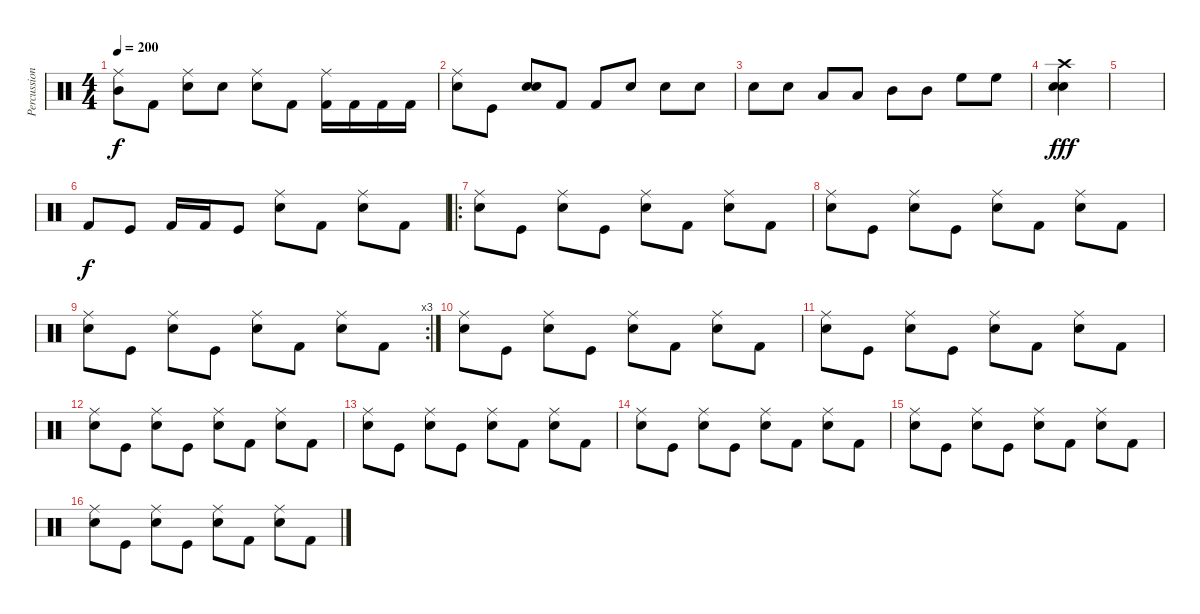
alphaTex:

\track ("Percussion" "Percussion") {instrument percussion}
\staff {score}
\articulation defaults
\ts (4 4)
\tempo 200
\clef neutral
\ks c
("Ride (middle)" "Mid Tom (hit)").8{dy f} "Kick (hit) 2".8 ("Ride (middle)" "Electric Snare (hit)").8 "Electric Snare (hit)".8 ("Ride (middle)" "Electric Snare (hit)").8 "Kick (hit) 2".8 ("Ride (middle)" "Kick (hit) 2").16 "Kick (hit) 2".16 "Kick (hit) 2".16 "Kick (hit) 2".16 |
("Ride (middle)" "Electric Snare (hit)").8 "Kick (hit)".8 ("Electric Snare (hit)" "Electric Snare (hit)").8{bu 120} "Kick (hit) 2".8 "Kick (hit) 2".8 "Electric Snare (hit)".8 "Electric Snare (hit)".8 "Electric Snare (hit)".8 |
"Electric Snare (hit)".8 "Electric Snare (hit)".8 "Low Tom (hit)".8 "Low Tom (hit)".8 "Mid Tom (hit)".8 "Mid Tom (hit)".8 "High Floor Tom (hit)".8 "High Floor Tom (hit)".8 |
("Electric Snare (hit)" "Electric Snare (hit)" "Crash high (hit)").4{bu 480 dy fff} |
|
"Kick (hit) 2".8{dy f} "Kick (hit)".8 "Kick (hit) 2".16 "Kick (hit) 2".16 "Kick (hit)".8 ("Ride (middle)" "Electric Snare (hit)").8 "Kick (hit) 2".8 ("Ride (middle)" "Electric Snare (hit)").8 "Kick (hit) 2".8 |
\ro
("Ride (middle)" "Electric Snare (hit)").8 "Kick (hit)".8 ("Ride (middle)" "Electric Snare (hit)").8 "Kick (hit)".8 ("Ride (middle)" "Electric Snare (hit)").8 "Kick (hit) 2".8 ("Ride (middle)" "Electric Snare (hit)").8 "Kick (hit) 2".8 |
("Ride (middle)" "Electric Snare (hit)").8 "Kick (hit)".8 ("Ride (middle)" "Electric Snare (hit)").8 "Kick (hit)".8 ("Ride (middle)" "Electric Snare (hit)").8 "Kick (hit) 2".8 ("Ride (middle)" "Electric Snare (hit)").8 "Kick (hit) 2".8 |
\rc 3
("Ride (middle)" "Electric Snare (hit)").8 "Kick (hit)".8 ("Ride (middle)" "Electric Snare (hit)").8 "Kick (hit)".8 ("Ride (middle)" "Electric Snare (hit)").8 "Kick (hit) 2".8 ("Ride (middle)" "Electric Snare (hit)").8 "Kick (hit) 2".8 |
("Ride (middle)" "Electric Snare (hit)").8 "Kick (hit)".8 ("Ride (middle)" "Electric Snare (hit)").8 "Kick (hit)".8 ("Ride (middle)" "Electric Snare (hit)").8 "Kick (hit) 2".8 ("Ride (middle)" "Electric Snare (hit)").8 "Kick (hit) 2".8 |
("Ride (middle)" "Electric Snare (hit)").8 "Kick (hit)".8 ("Ride (middle)" "Electric Snare (hit)").8 "Kick (hit)".8 ("Ride (middle)" "Electric Snare (hit)").8 "Kick (hit) 2".8 ("Ride (middle)" "Electric Snare (hit)").8 "Kick (hit) 2".8 |
("Ride (middle)" "Electric Snare (hit)").8 "Kick (hit)".8 ("Ride (middle)" "Electric Snare (hit)").8 "Kick (hit)".8 ("Ride (middle)" "Electric Snare (hit)").8 "Kick (hit) 2".8 ("Ride (middle)" "Electric Snare (hit)").8 "Kick (hit) 2".8 |
("Ride (middle)" "Electric Snare (hit)").8 "Kick (hit)".8 ("Ride (middle)" "Electric Snare (hit)").8 "Kick (hit)".8 ("Ride (middle)" "Electric Snare (hit)").8 "Kick (hit) 2".8 ("Ride (middle)" "Electric Snare (hit)").8 "Kick (hit) 2".8 |
("Ride (middle)" "Electric Snare (hit)").8 "Kick (hit)".8 ("Ride (middle)" "Electric Snare (hit)").8 "Kick (hit)".8 ("Ride (middle)" "Electric Snare (hit)").8 "Kick (hit) 2".8 ("Ride (middle)" "Electric Snare (hit)").8 "Kick (hit) 2".8 |
("Ride (middle)" "Electric Snare (hit)").8 "Kick (hit)".8 ("Ride (middle)" "Electric Snare (hit)").8 "Kick (hit)".8 ("Ride (middle)" "Electric Snare (hit)").8 "Kick (hit) 2".8 ("Ride (middle)" "Electric Snare (hit)").8 "Kick (hit) 2".8 |
("Ride (middle)" "Electric Snare (hit)").8 "Kick (hit)".8 ("Ride (middle)" "Electric Snare (hit)").8 "Kick (hit)".8 ("Ride (middle)" "Electric Snare (hit)").8 "Kick (hit) 2".8 ("Ride (middle)" "Electric Snare (hit)").8 "Kick (hit) 2".8
